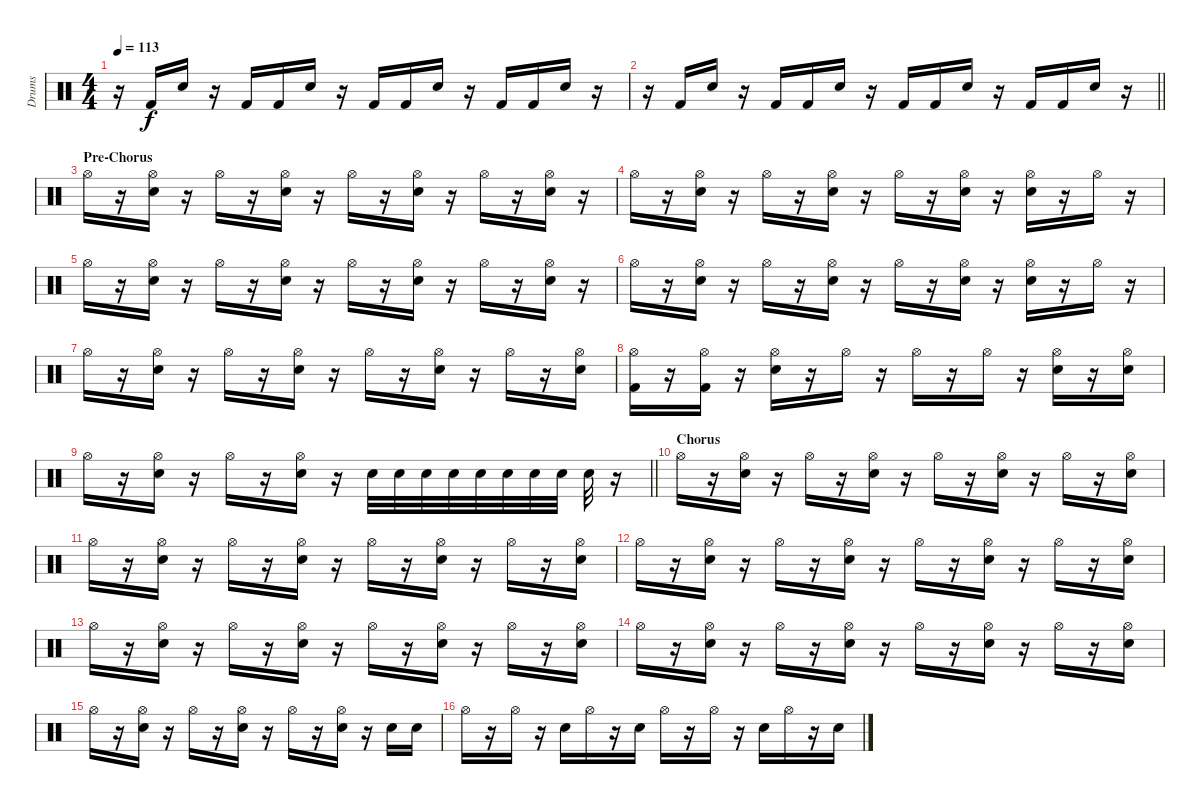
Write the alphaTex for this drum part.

\track ("Drums" "Drums") {instrument percussion}
\staff {score}
\articulation defaults
\ts (4 4)
\tempo 113
\clef neutral
\ks c
r.16{dy f} "Kick (hit) 2".16 "Electric Snare (hit)".16 r.16 "Kick (hit) 2".16 "Kick (hit) 2".16 "Electric Snare (hit)".16 r.16 "Kick (hit) 2".16 "Kick (hit) 2".16 "Electric Snare (hit)".16 r.16 "Kick (hit) 2".16 "Kick (hit) 2".16 "Electric Snare (hit)".16 r.16 |
\barLineRight lightlight
r.16 "Kick (hit) 2".16 "Electric Snare (hit)".16 r.16 "Kick (hit) 2".16 "Kick (hit) 2".16 "Electric Snare (hit)".16 r.16 "Kick (hit) 2".16 "Kick (hit) 2".16 "Electric Snare (hit)".16 r.16 "Kick (hit) 2".16 "Kick (hit) 2".16 "Electric Snare (hit)".16 r.16 |
\section ("" "Pre-Chorus")
"Hi-Hat (open)".16 r.16 ("Hi-Hat (open)" "Electric Snare (hit)").16 r.16 "Hi-Hat (open)".16 r.16 ("Hi-Hat (open)" "Electric Snare (hit)").16 r.16 "Hi-Hat (open)".16 r.16 ("Hi-Hat (open)" "Electric Snare (hit)").16 r.16 "Hi-Hat (open)".16 r.16 ("Hi-Hat (open)" "Electric Snare (hit)").16 r.16 |
"Hi-Hat (open)".16 r.16 ("Hi-Hat (open)" "Electric Snare (hit)").16 r.16 "Hi-Hat (open)".16 r.16 ("Hi-Hat (open)" "Electric Snare (hit)").16 r.16 "Hi-Hat (open)".16 r.16 ("Hi-Hat (open)" "Electric Snare (hit)").16 r.16 ("Hi-Hat (open)" "Electric Snare (hit)").16 r.16 "Hi-Hat (open)".16 r.16 |
"Hi-Hat (open)".16 r.16 ("Hi-Hat (open)" "Electric Snare (hit)").16 r.16 "Hi-Hat (open)".16 r.16 ("Hi-Hat (open)" "Electric Snare (hit)").16 r.16 "Hi-Hat (open)".16 r.16 ("Hi-Hat (open)" "Electric Snare (hit)").16 r.16 "Hi-Hat (open)".16 r.16 ("Hi-Hat (open)" "Electric Snare (hit)").16 r.16 |
"Hi-Hat (open)".16 r.16 ("Hi-Hat (open)" "Electric Snare (hit)").16 r.16 "Hi-Hat (open)".16 r.16 ("Hi-Hat (open)" "Electric Snare (hit)").16 r.16 "Hi-Hat (open)".16 r.16 ("Hi-Hat (open)" "Electric Snare (hit)").16 r.16 ("Hi-Hat (open)" "Electric Snare (hit)").16 r.16 "Hi-Hat (open)".16 r.16 |
"Hi-Hat (open)".16 r.16 ("Hi-Hat (open)" "Electric Snare (hit)").16 r.16 "Hi-Hat (open)".16 r.16 ("Hi-Hat (open)" "Electric Snare (hit)").16 r.16 "Hi-Hat (open)".16 r.16 ("Hi-Hat (open)" "Electric Snare (hit)").16 r.16 "Hi-Hat (open)".16 r.16 ("Hi-Hat (open)" "Electric Snare (hit)").16 |
("Hi-Hat (open)" "Kick (hit) 2").16 r.16 ("Hi-Hat (open)" "Kick (hit) 2").16 r.16 ("Hi-Hat (open)" "Electric Snare (hit)").16 r.16 "Hi-Hat (open)".16 r.16 "Hi-Hat (open)".16 r.16 "Hi-Hat (open)".16 r.16 ("Hi-Hat (open)" "Electric Snare (hit)").16 r.16 ("Hi-Hat (open)" "Electric Snare (hit)").16 |
\barLineRight lightlight "Hi-Hat (open)".16
r.16 ("Hi-Hat (open)" "Electric Snare (hit)").16 r.16 "Hi-Hat (open)".16 r.16 ("Hi-Hat (open)" "Electric Snare (hit)").16 r.16 "Electric Snare (hit)".32 "Electric Snare (hit)".32 "Electric Snare (hit)".32 "Electric Snare (hit)".32 "Electric Snare (hit)".32 "Electric Snare (hit)".32 "Electric Snare (hit)".32 "Electric Snare (hit)".32 "Electric Snare (hit)".32 r.16 |
\section ("" "Chorus")
"Hi-Hat (open)".16 r.16 ("Hi-Hat (open)" "Electric Snare (hit)").16 r.16 "Hi-Hat (open)".16 r.16 ("Hi-Hat (open)" "Electric Snare (hit)").16 r.16 "Hi-Hat (open)".16 r.16 ("Hi-Hat (open)" "Electric Snare (hit)").16 r.16 "Hi-Hat (open)".16 r.16 ("Hi-Hat (open)" "Electric Snare (hit)").16 |
"Hi-Hat (open)".16 r.16 ("Hi-Hat (open)" "Electric Snare (hit)").16 r.16 "Hi-Hat (open)".16 r.16 ("Hi-Hat (open)" "Electric Snare (hit)").16 r.16 "Hi-Hat (open)".16 r.16 ("Hi-Hat (open)" "Electric Snare (hit)").16 r.16 "Hi-Hat (open)".16 r.16 ("Hi-Hat (open)" "Electric Snare (hit)").16 |
"Hi-Hat (open)".16 r.16 ("Hi-Hat (open)" "Electric Snare (hit)").16 r.16 "Hi-Hat (open)".16 r.16 ("Hi-Hat (open)" "Electric Snare (hit)").16 r.16 "Hi-Hat (open)".16 r.16 ("Hi-Hat (open)" "Electric Snare (hit)").16 r.16 "Hi-Hat (open)".16 r.16 ("Hi-Hat (open)" "Electric Snare (hit)").16 |
"Hi-Hat (open)".16 r.16 ("Hi-Hat (open)" "Electric Snare (hit)").16 r.16 "Hi-Hat (open)".16 r.16 ("Hi-Hat (open)" "Electric Snare (hit)").16 r.16 "Hi-Hat (open)".16 r.16 ("Hi-Hat (open)" "Electric Snare (hit)").16 r.16 "Hi-Hat (open)".16 r.16 ("Hi-Hat (open)" "Electric Snare (hit)").16 |
"Hi-Hat (open)".16 r.16 ("Hi-Hat (open)" "Electric Snare (hit)").16 r.16 "Hi-Hat (open)".16 r.16 ("Hi-Hat (open)" "Electric Snare (hit)").16 r.16 "Hi-Hat (open)".16 r.16 ("Hi-Hat (open)" "Electric Snare (hit)").16 r.16 "Hi-Hat (open)".16 r.16 ("Hi-Hat (open)" "Electric Snare (hit)").16 |
"Hi-Hat (open)".16 r.16 ("Hi-Hat (open)" "Electric Snare (hit)").16 r.16 "Hi-Hat (open)".16 r.16 ("Hi-Hat (open)" "Electric Snare (hit)").16 r.16 "Hi-Hat (open)".16 r.16 ("Hi-Hat (open)" "Electric Snare (hit)").16 r.16 "Electric Snare (hit)".16 "Electric Snare (hit)".16 |
"Hi-Hat (open)".16 r.16 "Hi-Hat (open)".16 r.16 "Electric Snare (hit)".16 "Hi-Hat (open)".16 r.16 "Electric Snare (hit)".16 "Hi-Hat (open)".16 r.16 "Hi-Hat (open)".16 r.16 "Electric Snare (hit)".16 "Hi-Hat (open)".16 r.16 "Electric Snare (hit)".16
